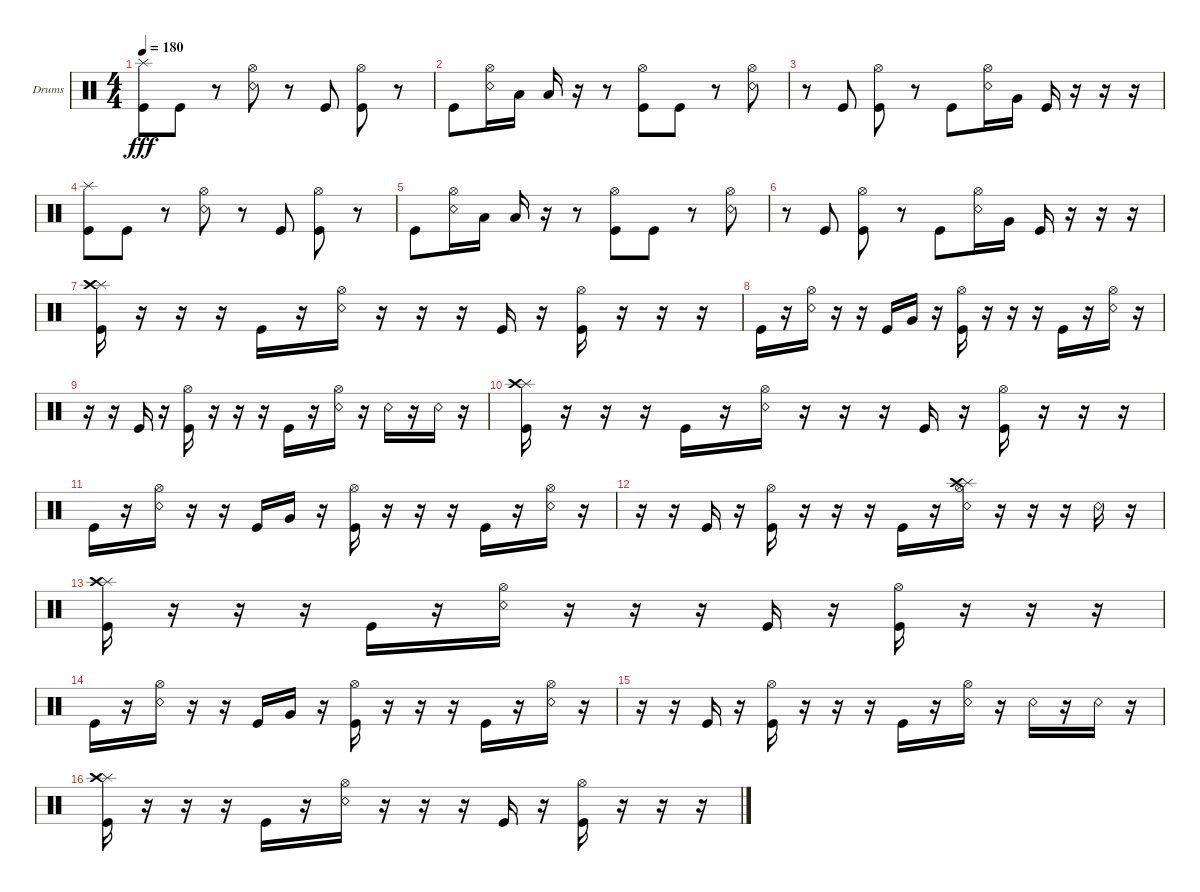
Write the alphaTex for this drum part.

\defaultSystemsLayout 4
\bracketExtendMode groupsimilarinstruments
\firstSystemTrackNameOrientation horizontal
\otherSystemsTrackNameOrientation horizontal
\track ("Drumkit" "Drums") {instrument percussion}
\staff {score}
\articulation defaults
\ts (4 4)
\tempo 180
\clef neutral
\ks c
("Kick (hit)" "Splash (hit)").8{dy fff} "Kick (hit)".8 r.8 ("Snare (rim shot)" "Hi-Hat (open)").8 r.8 "Kick (hit)".8 ("Kick (hit)" "Hi-Hat (open)").8 r.8 |
"Kick (hit)".8 ("Hi-Hat (open)" "Snare (rim shot)").16 "Low Tom (hit)".16 "Low Tom (hit)".16 r.16 r.8 ("Kick (hit)" "Hi-Hat (open)").8 "Kick (hit)".8 r.8 ("Hi-Hat (open)" "Snare (rim shot)").8 |
r.8 "Kick (hit)".8 ("Kick (hit)" "Hi-Hat (open)").8 r.8 "Kick (hit)".8 ("Hi-Hat (open)" "Snare (rim shot)").16 "Very Low Tom (hit)".16 "Kick (hit)".16 r.16 r.16 r.16 |
("Kick (hit)" "Splash (hit)").8 "Kick (hit)".8 r.8 ("Snare (rim shot)" "Hi-Hat (open)").8 r.8 "Kick (hit)".8 ("Kick (hit)" "Hi-Hat (open)").8 r.8 |
"Kick (hit)".8 ("Hi-Hat (open)" "Snare (rim shot)").16 "Low Tom (hit)".16 "Low Tom (hit)".16 r.16 r.8 ("Kick (hit)" "Hi-Hat (open)").8 "Kick (hit)".8 r.8 ("Hi-Hat (open)" "Snare (rim shot)").8 |
r.8 "Kick (hit)".8 ("Kick (hit)" "Hi-Hat (open)").8 r.8 "Kick (hit)".8 ("Hi-Hat (open)" "Snare (rim shot)").16 "Very Low Tom (hit)".16 "Kick (hit)".16 r.16 r.16 r.16 |
("Splash (hit)" "Crash high (hit)" "Kick (hit)").16 r.16 r.16 r.16 "Kick (hit)".16 r.16 ("Hi-Hat (open)" "Snare (rim shot)").16 r.16 r.16 r.16 "Kick (hit)".16 r.16 ("Hi-Hat (open)" "Kick (hit)").16 r.16 r.16 r.16 |
"Kick (hit)".16 r.16 ("Hi-Hat (open)" "Snare (rim shot)").16 r.16 r.16 "Kick (hit)".16 "Very Low Tom (hit)".16 r.16 ("Hi-Hat (open)" "Kick (hit)").16 r.16 r.16 r.16 "Kick (hit)".16 r.16 ("Hi-Hat (open)" "Snare (rim shot)").16 r.16 |
r.16 r.16 "Kick (hit)".16 r.16 ("Hi-Hat (open)" "Kick (hit)").16 r.16 r.16 r.16 "Kick (hit)".16 r.16 ("Hi-Hat (open)" "Snare (rim shot)").16 r.16 "Snare (rim shot)".16 r.16 "Snare (rim shot)".16 r.16 |
("Splash (hit)" "Crash high (hit)" "Kick (hit)").16 r.16 r.16 r.16 "Kick (hit)".16 r.16 ("Hi-Hat (open)" "Snare (rim shot)").16 r.16 r.16 r.16 "Kick (hit)".16 r.16 ("Hi-Hat (open)" "Kick (hit)").16 r.16 r.16 r.16 |
"Kick (hit)".16 r.16 ("Hi-Hat (open)" "Snare (rim shot)").16 r.16 r.16 "Kick (hit)".16 "Very Low Tom (hit)".16 r.16 ("Hi-Hat (open)" "Kick (hit)").16 r.16 r.16 r.16 "Kick (hit)".16 r.16 ("Hi-Hat (open)" "Snare (rim shot)").16 r.16 |
r.16 r.16 "Kick (hit)".16 r.16 ("Hi-Hat (open)" "Kick (hit)").16 r.16 r.16 r.16 "Kick (hit)".16 r.16 ("Hi-Hat (open)" "Snare (rim shot)" "Splash (hit)" "Crash high (hit)").16 r.16 r.16 r.16 "Snare (rim shot)".16 r.16 |
("Splash (hit)" "Crash high (hit)" "Kick (hit)").16 r.16 r.16 r.16 "Kick (hit)".16 r.16 ("Hi-Hat (open)" "Snare (rim shot)").16 r.16 r.16 r.16 "Kick (hit)".16 r.16 ("Hi-Hat (open)" "Kick (hit)").16 r.16 r.16 r.16 |
"Kick (hit)".16 r.16 ("Hi-Hat (open)" "Snare (rim shot)").16 r.16 r.16 "Kick (hit)".16 "Very Low Tom (hit)".16 r.16 ("Hi-Hat (open)" "Kick (hit)").16 r.16 r.16 r.16 "Kick (hit)".16 r.16 ("Hi-Hat (open)" "Snare (rim shot)").16 r.16 |
r.16 r.16 "Kick (hit)".16 r.16 ("Hi-Hat (open)" "Kick (hit)").16 r.16 r.16 r.16 "Kick (hit)".16 r.16 ("Hi-Hat (open)" "Snare (rim shot)").16 r.16 "Snare (rim shot)".16 r.16 "Snare (rim shot)".16 r.16 |
("Splash (hit)" "Crash high (hit)" "Kick (hit)").16 r.16 r.16 r.16 "Kick (hit)".16 r.16 ("Hi-Hat (open)" "Snare (rim shot)").16 r.16 r.16 r.16 "Kick (hit)".16 r.16 ("Hi-Hat (open)" "Kick (hit)").16 r.16 r.16 r.16
